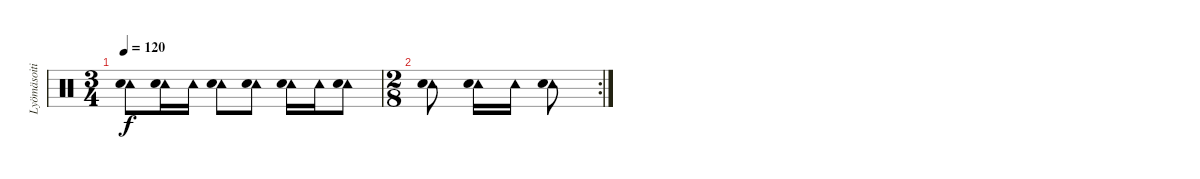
\track ("Lyömäsoitin" "Lyömäsoiti") {solo instrument percussion}
\staff {score}
\articulation defaults
\ts (3 4)
\tempo 120
\clef neutral
\ks c
("Tambourine (hit)" "Hand Clap (hit)").8{dy f} ("Tambourine (hit)" "Hand Clap (hit)").16 "Tambourine (hit)".16 ("Tambourine (hit)" "Hand Clap (hit)").8 ("Tambourine (hit)" "Hand Clap (hit)").8 ("Tambourine (hit)" "Hand Clap (hit)").16 "Tambourine (hit)".16 ("Tambourine (hit)" "Hand Clap (hit)").8 |
\rc 2
\ts (2 8)
("Tambourine (hit)" "Hand Clap (hit)").8 ("Tambourine (hit)" "Hand Clap (hit)").16 "Tambourine (hit)".16 ("Tambourine (hit)" "Hand Clap (hit)").8
